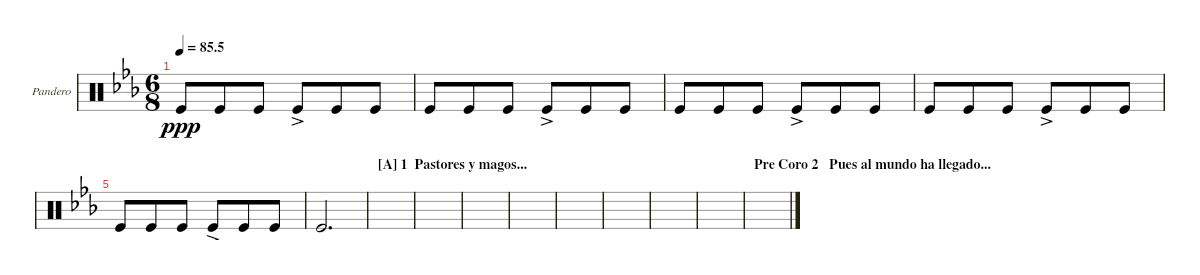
\defaultSystemsLayout 4
\bracketExtendMode groupsimilarinstruments
\multiTrackTrackNamePolicy allsystems
\firstSystemTrackNameOrientation horizontal
\otherSystemsTrackNameOrientation horizontal
\defaultBarNumberDisplay FirstOfSystem
\track ("Pandero" "Pandero") {instrument percussion}
\staff {score}
\articulation defaults
\ts (6 8)
\tempo
85.5
\accidentals auto
\clef neutral
\ottava regular
\simile none
\scale
0.333333
\ks eb "Kick (hit)".8{dy ppp} "Kick (hit)".8 "Kick (hit)".8 "Kick (hit)"{ac}.8 "Kick (hit)".8 "Kick (hit)".8
|
\scale
0.333333 "Kick (hit)".8 "Kick (hit)".8 "Kick (hit)".8 "Kick (hit)"{ac}.8 "Kick (hit)".8 "Kick (hit)".8 |
\scale
0.333333 "Kick (hit)".8 "Kick (hit)".8 "Kick (hit)".8 "Kick (hit)"{ac}.8 "Kick (hit)".8 "Kick (hit)".8 |
\scale
0.333333 "Kick (hit)".8 "Kick (hit)".8 "Kick (hit)".8 "Kick (hit)"{ac}.8 "Kick (hit)".8 "Kick (hit)".8 |
\scale
0.333333 "Kick (hit)".8 "Kick (hit)".8 "Kick (hit)".8 "Kick (hit)"{ac}.8 "Kick (hit)".8 "Kick (hit)".8 |
\scale
0.333333 "Kick (hit)".2{d} |
\section ("A" "1  Pastores y magos...")
\scale
0.333333 |
\scale
0.333333 |
\scale
0.333333 |
\scale
0.333333 |
\scale
0.333333 |
\scale
0.333333 |
\scale
0.333333 |
\scale
0.333333 |
\section ("" "Pre Coro 2   Pues al mundo ha llegado...")
\scale
0.333333 |
\scale
0.333333
